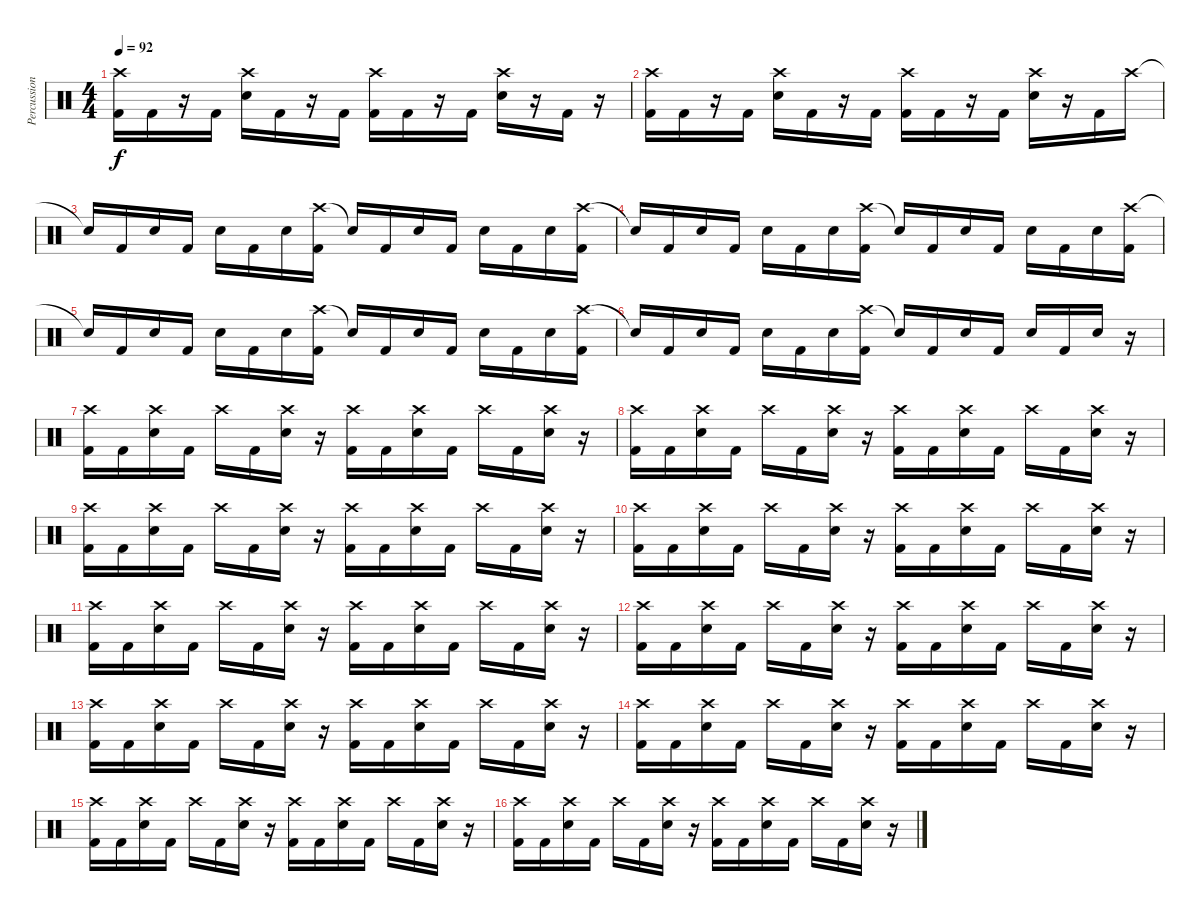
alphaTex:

\track ("Percussion" "Percussion") {instrument percussion}
\staff {score}
\articulation defaults
\ts (4 4)
\tempo 92
\clef neutral
\ks c
("Crash high (hit)" "Kick (hit) 2").16{dy f} "Kick (hit) 2".16 r.16 "Kick (hit) 2".16 ("Crash high (hit)" "Snare (hit) 2").16 "Kick (hit) 2".16 r.16 "Kick (hit) 2".16 ("Crash high (hit)" "Kick (hit) 2").16 "Kick (hit) 2".16 r.16 "Kick (hit) 2".16 ("Crash high (hit)" "Snare (hit) 2").16 r.16 "Kick (hit) 2".16 r.16 |
("Crash high (hit)" "Kick (hit) 2").16 "Kick (hit) 2".16 r.16 "Kick (hit) 2".16 ("Crash high (hit)" "Snare (hit) 2").16 "Kick (hit) 2".16 r.16 "Kick (hit) 2".16 ("Crash high (hit)" "Kick (hit) 2").16 "Kick (hit) 2".16 r.16 "Kick (hit) 2".16 ("Crash high (hit)" "Snare (hit) 2").16 r.16 "Kick (hit) 2".16 "Crash high (hit)".16 |
"Snare (hit)"{t}.16 "Kick (hit) 2".16 "Snare (hit) 2".16 "Kick (hit) 2".16 "Snare (hit) 2".16 "Kick (hit) 2".16 "Snare (hit) 2".16 ("Crash high (hit)" "Kick (hit) 2").16 "Snare (hit)"{t}.16 "Kick (hit) 2".16 "Snare (hit) 2".16 "Kick (hit) 2".16 "Snare (hit) 2".16 "Kick (hit) 2".16 "Snare (hit) 2".16 ("Crash high (hit)" "Kick (hit) 2").16 |
"Snare (hit)"{t}.16 "Kick (hit) 2".16 "Snare (hit) 2".16 "Kick (hit) 2".16 "Snare (hit) 2".16 "Kick (hit) 2".16 "Snare (hit) 2".16 ("Crash high (hit)" "Kick (hit) 2").16 "Snare (hit)"{t}.16 "Kick (hit) 2".16 "Snare (hit) 2".16 "Kick (hit) 2".16 "Snare (hit) 2".16 "Kick (hit) 2".16 "Snare (hit) 2".16 ("Crash high (hit)" "Kick (hit) 2").16 |
"Snare (hit)"{t}.16 "Kick (hit) 2".16 "Snare (hit) 2".16 "Kick (hit) 2".16 "Snare (hit) 2".16 "Kick (hit) 2".16 "Snare (hit) 2".16 ("Crash high (hit)" "Kick (hit) 2").16 "Snare (hit)"{t}.16 "Kick (hit) 2".16 "Snare (hit) 2".16 "Kick (hit) 2".16 "Snare (hit) 2".16 "Kick (hit) 2".16 "Snare (hit) 2".16 ("Crash high (hit)" "Kick (hit) 2").16 |
"Snare (hit)"{t}.16 "Kick (hit) 2".16 "Snare (hit) 2".16 "Kick (hit) 2".16 "Snare (hit) 2".16 "Kick (hit) 2".16 "Snare (hit) 2".16 ("Crash high (hit)" "Kick (hit) 2").16 "Snare (hit)"{t}.16 "Kick (hit) 2".16 "Snare (hit) 2".16 "Kick (hit) 2".16 "Snare (hit) 2".16 "Kick (hit) 2".16 "Snare (hit) 2".16 r.16 |
("Crash high (hit)" "Kick (hit) 2").16 "Kick (hit) 2".16 ("Crash high (hit)" "Snare (hit) 2").16 "Kick (hit) 2".16 "Crash high (hit)".16 "Kick (hit) 2".16 ("Crash high (hit)" "Snare (hit) 2").16 r.16 ("Crash high (hit)" "Kick (hit) 2").16 "Kick (hit) 2".16 ("Crash high (hit)" "Snare (hit) 2").16 "Kick (hit) 2".16 "Crash high (hit)".16 "Kick (hit) 2".16 ("Crash high (hit)" "Snare (hit) 2").16 r.16 |
("Crash high (hit)" "Kick (hit) 2").16 "Kick (hit) 2".16 ("Crash high (hit)" "Snare (hit) 2").16 "Kick (hit) 2".16 "Crash high (hit)".16 "Kick (hit) 2".16 ("Crash high (hit)" "Snare (hit) 2").16 r.16 ("Crash high (hit)" "Kick (hit) 2").16 "Kick (hit) 2".16 ("Crash high (hit)" "Snare (hit) 2").16 "Kick (hit) 2".16 "Crash high (hit)".16 "Kick (hit) 2".16 ("Crash high (hit)" "Snare (hit) 2").16 r.16 |
("Crash high (hit)" "Kick (hit) 2").16 "Kick (hit) 2".16 ("Crash high (hit)" "Snare (hit) 2").16 "Kick (hit) 2".16 "Crash high (hit)".16 "Kick (hit) 2".16 ("Crash high (hit)" "Snare (hit) 2").16 r.16 ("Crash high (hit)" "Kick (hit) 2").16 "Kick (hit) 2".16 ("Crash high (hit)" "Snare (hit) 2").16 "Kick (hit) 2".16 "Crash high (hit)".16 "Kick (hit) 2".16 ("Crash high (hit)" "Snare (hit) 2").16 r.16 |
("Crash high (hit)" "Kick (hit) 2").16 "Kick (hit) 2".16 ("Crash high (hit)" "Snare (hit) 2").16 "Kick (hit) 2".16 "Crash high (hit)".16 "Kick (hit) 2".16 ("Crash high (hit)" "Snare (hit) 2").16 r.16 ("Crash high (hit)" "Kick (hit) 2").16 "Kick (hit) 2".16 ("Crash high (hit)" "Snare (hit) 2").16 "Kick (hit) 2".16 "Crash high (hit)".16 "Kick (hit) 2".16 ("Crash high (hit)" "Snare (hit) 2").16 r.16 |
("Crash high (hit)" "Kick (hit) 2").16 "Kick (hit) 2".16 ("Crash high (hit)" "Snare (hit) 2").16 "Kick (hit) 2".16 "Crash high (hit)".16 "Kick (hit) 2".16 ("Crash high (hit)" "Snare (hit) 2").16 r.16 ("Crash high (hit)" "Kick (hit) 2").16 "Kick (hit) 2".16 ("Crash high (hit)" "Snare (hit) 2").16 "Kick (hit) 2".16 "Crash high (hit)".16 "Kick (hit) 2".16 ("Crash high (hit)" "Snare (hit) 2").16 r.16 |
("Crash high (hit)" "Kick (hit) 2").16 "Kick (hit) 2".16 ("Crash high (hit)" "Snare (hit) 2").16 "Kick (hit) 2".16 "Crash high (hit)".16 "Kick (hit) 2".16 ("Crash high (hit)" "Snare (hit) 2").16 r.16 ("Crash high (hit)" "Kick (hit) 2").16 "Kick (hit) 2".16 ("Crash high (hit)" "Snare (hit) 2").16 "Kick (hit) 2".16 "Crash high (hit)".16 "Kick (hit) 2".16 ("Crash high (hit)" "Snare (hit) 2").16 r.16 |
("Crash high (hit)" "Kick (hit) 2").16 "Kick (hit) 2".16 ("Crash high (hit)" "Snare (hit) 2").16 "Kick (hit) 2".16 "Crash high (hit)".16 "Kick (hit) 2".16 ("Crash high (hit)" "Snare (hit) 2").16 r.16 ("Crash high (hit)" "Kick (hit) 2").16 "Kick (hit) 2".16 ("Crash high (hit)" "Snare (hit) 2").16 "Kick (hit) 2".16 "Crash high (hit)".16 "Kick (hit) 2".16 ("Crash high (hit)" "Snare (hit) 2").16 r.16 |
("Crash high (hit)" "Kick (hit) 2").16 "Kick (hit) 2".16 ("Crash high (hit)" "Snare (hit) 2").16 "Kick (hit) 2".16 "Crash high (hit)".16 "Kick (hit) 2".16 ("Crash high (hit)" "Snare (hit) 2").16 r.16 ("Crash high (hit)" "Kick (hit) 2").16 "Kick (hit) 2".16 ("Crash high (hit)" "Snare (hit) 2").16 "Kick (hit) 2".16 "Crash high (hit)".16 "Kick (hit) 2".16 ("Crash high (hit)" "Snare (hit) 2").16 r.16 |
("Crash high (hit)" "Kick (hit) 2").16 "Kick (hit) 2".16 ("Crash high (hit)" "Snare (hit) 2").16 "Kick (hit) 2".16 "Crash high (hit)".16 "Kick (hit) 2".16 ("Crash high (hit)" "Snare (hit) 2").16 r.16 ("Crash high (hit)" "Kick (hit) 2").16 "Kick (hit) 2".16 ("Crash high (hit)" "Snare (hit) 2").16 "Kick (hit) 2".16 "Crash high (hit)".16 "Kick (hit) 2".16 ("Crash high (hit)" "Snare (hit) 2").16 r.16 |
("Crash high (hit)" "Kick (hit) 2").16 "Kick (hit) 2".16 ("Crash high (hit)" "Snare (hit) 2").16 "Kick (hit) 2".16 "Crash high (hit)".16 "Kick (hit) 2".16 ("Crash high (hit)" "Snare (hit) 2").16 r.16 ("Crash high (hit)" "Kick (hit) 2").16 "Kick (hit) 2".16 ("Crash high (hit)" "Snare (hit) 2").16 "Kick (hit) 2".16 "Crash high (hit)".16 "Kick (hit) 2".16 ("Crash high (hit)" "Snare (hit) 2").16 r.16
